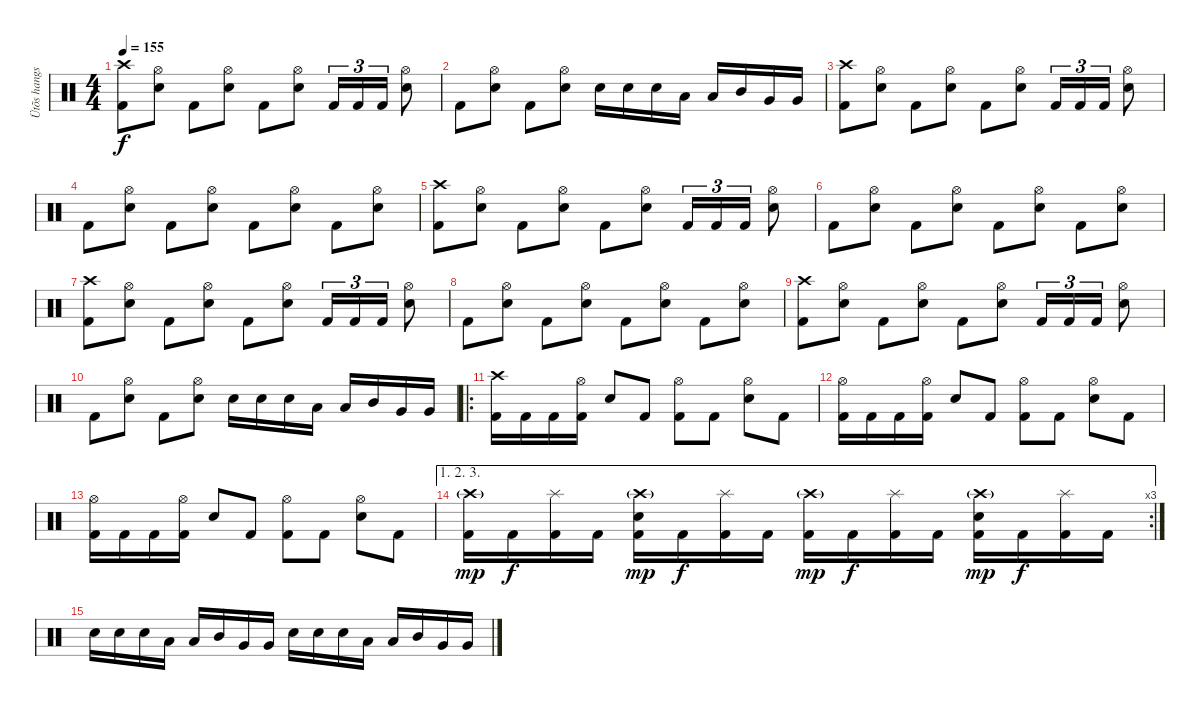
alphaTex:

\track ("Ütõs hangszer" "Ütõs hangs") {instrument percussion}
\staff {score}
\articulation defaults
\ts (4 4)
\tempo 155
\clef neutral
\ks c
("Crash high (hit)" "Kick (hit) 2").8{dy f} ("Hi-Hat (open)" "Snare (hit) 2").8 "Kick (hit) 2".8 ("Hi-Hat (open)" "Snare (hit) 2").8 "Kick (hit) 2".8 ("Hi-Hat (open)" "Snare (hit) 2").8 "Kick (hit) 2".16{tu (3 2)} "Kick (hit) 2".16{tu (3 2)} "Kick (hit) 2".16{tu (3 2)} ("Hi-Hat (open)" "Snare (hit) 2").8 |
"Kick (hit) 2".8 ("Hi-Hat (open)" "Snare (hit) 2").8 "Kick (hit) 2".8 ("Hi-Hat (open)" "Snare (hit) 2").8 "Snare (hit) 2".16 "Snare (hit) 2".16 "Snare (hit) 2".16 "Low Tom (hit)".16 "Low Tom (hit)".16 "Mid Tom (hit)".16 "Very Low Tom (hit)".16 "Very Low Tom (hit)".16 |
("Crash high (hit)" "Kick (hit) 2").8 ("Hi-Hat (open)" "Snare (hit) 2").8 "Kick (hit) 2".8 ("Hi-Hat (open)" "Snare (hit) 2").8 "Kick (hit) 2".8 ("Hi-Hat (open)" "Snare (hit) 2").8 "Kick (hit) 2".16{tu (3 2)} "Kick (hit) 2".16{tu (3 2)} "Kick (hit) 2".16{tu (3 2)} ("Hi-Hat (open)" "Snare (hit) 2").8 |
"Kick (hit) 2".8 ("Hi-Hat (open)" "Snare (hit) 2").8 "Kick (hit) 2".8 ("Hi-Hat (open)" "Snare (hit) 2").8 "Kick (hit) 2".8 ("Hi-Hat (open)" "Snare (hit) 2").8 "Kick (hit) 2".8 ("Hi-Hat (open)" "Snare (hit) 2").8 |
("Crash high (hit)" "Kick (hit) 2").8 ("Hi-Hat (open)" "Snare (hit) 2").8 "Kick (hit) 2".8 ("Hi-Hat (open)" "Snare (hit) 2").8 "Kick (hit) 2".8 ("Hi-Hat (open)" "Snare (hit) 2").8 "Kick (hit) 2".16{tu (3 2)} "Kick (hit) 2".16{tu (3 2)} "Kick (hit) 2".16{tu (3 2)} ("Hi-Hat (open)" "Snare (hit) 2").8 |
"Kick (hit) 2".8 ("Hi-Hat (open)" "Snare (hit) 2").8 "Kick (hit) 2".8 ("Hi-Hat (open)" "Snare (hit) 2").8 "Kick (hit) 2".8 ("Hi-Hat (open)" "Snare (hit) 2").8 "Kick (hit) 2".8 ("Hi-Hat (open)" "Snare (hit) 2").8 |
("Crash high (hit)" "Kick (hit) 2").8 ("Hi-Hat (open)" "Snare (hit) 2").8 "Kick (hit) 2".8 ("Hi-Hat (open)" "Snare (hit) 2").8 "Kick (hit) 2".8 ("Hi-Hat (open)" "Snare (hit) 2").8 "Kick (hit) 2".16{tu (3 2)} "Kick (hit) 2".16{tu (3 2)} "Kick (hit) 2".16{tu (3 2)} ("Hi-Hat (open)" "Snare (hit) 2").8 |
"Kick (hit) 2".8 ("Hi-Hat (open)" "Snare (hit) 2").8 "Kick (hit) 2".8 ("Hi-Hat (open)" "Snare (hit) 2").8 "Kick (hit) 2".8 ("Hi-Hat (open)" "Snare (hit) 2").8 "Kick (hit) 2".8 ("Hi-Hat (open)" "Snare (hit) 2").8 |
("Crash high (hit)" "Kick (hit) 2").8 ("Hi-Hat (open)" "Snare (hit) 2").8 "Kick (hit) 2".8 ("Hi-Hat (open)" "Snare (hit) 2").8 "Kick (hit) 2".8 ("Hi-Hat (open)" "Snare (hit) 2").8 "Kick (hit) 2".16{tu (3 2)} "Kick (hit) 2".16{tu (3 2)} "Kick (hit) 2".16{tu (3 2)} ("Hi-Hat (open)" "Snare (hit) 2").8 |
"Kick (hit) 2".8 ("Hi-Hat (open)" "Snare (hit) 2").8 "Kick (hit) 2".8 ("Hi-Hat (open)" "Snare (hit) 2").8 "Snare (hit) 2".16 "Snare (hit) 2".16 "Snare (hit) 2".16 "Low Tom (hit)".16 "Low Tom (hit)".16 "Mid Tom (hit)".16 "Very Low Tom (hit)".16 "Very Low Tom (hit)".16 |
\ro
("Crash high (hit)" "Kick (hit) 2").16 "Kick (hit) 2".16 "Kick (hit) 2".16 ("Hi-Hat (open)" "Kick (hit) 2").16 "Snare (hit) 2".8 "Kick (hit) 2".8 ("Hi-Hat (open)" "Kick (hit) 2").8 "Kick (hit) 2".8 ("Hi-Hat (open)" "Snare (hit) 2").8 "Kick (hit) 2".8 |
("Hi-Hat (open)" "Kick (hit) 2").16 "Kick (hit) 2".16 "Kick (hit) 2".16 ("Hi-Hat (open)" "Kick (hit) 2").16 "Snare (hit) 2".8 "Kick (hit) 2".8 ("Hi-Hat (open)" "Kick (hit) 2").8 "Kick (hit) 2".8 ("Hi-Hat (open)" "Snare (hit) 2").8 "Kick (hit) 2".8 |
("Hi-Hat (open)" "Kick (hit) 2").16 "Kick (hit) 2".16 "Kick (hit) 2".16 ("Hi-Hat (open)" "Kick (hit) 2").16 "Snare (hit) 2".8 "Kick (hit) 2".8 ("Hi-Hat (open)" "Kick (hit) 2").8 "Kick (hit) 2".8 ("Hi-Hat (open)" "Snare (hit) 2").8 "Kick (hit) 2".8 |
\ae (1 2 3)
\rc 3
("Crash high (hit)"{g} "Kick (hit) 2").16{dy mp} "Kick (hit) 2".16{dy f} ("Splash (hit)" "Kick (hit) 2").16 "Kick (hit) 2".16 ("Crash high (hit)"{g} "Snare (hit) 2" "Kick (hit) 2").16{dy mp} "Kick (hit) 2".16{dy f} ("Splash (hit)" "Kick (hit) 2").16 "Kick (hit) 2".16 ("Crash high (hit)"{g} "Kick (hit) 2").16{dy mp} "Kick (hit) 2".16{dy f} ("Splash (hit)" "Kick (hit) 2").16 "Kick (hit) 2".16 ("Crash high (hit)"{g} "Snare (hit) 2" "Kick (hit) 2").16{dy mp} "Kick (hit) 2".16{dy f} ("Splash (hit)" "Kick (hit) 2").16 "Kick (hit) 2".16 |
"Snare (hit) 2".16 "Snare (hit) 2".16 "Snare (hit) 2".16 "Low Tom (hit)".16 "Low Tom (hit)".16 "Mid Tom (hit)".16 "Very Low Tom (hit)".16 "Very Low Tom (hit)".16 "Snare (hit) 2".16 "Snare (hit) 2".16 "Snare (hit) 2".16 "Low Tom (hit)".16 "Low Tom (hit)".16 "Mid Tom (hit)".16 "Very Low Tom (hit)".16 "Very Low Tom (hit)".16
